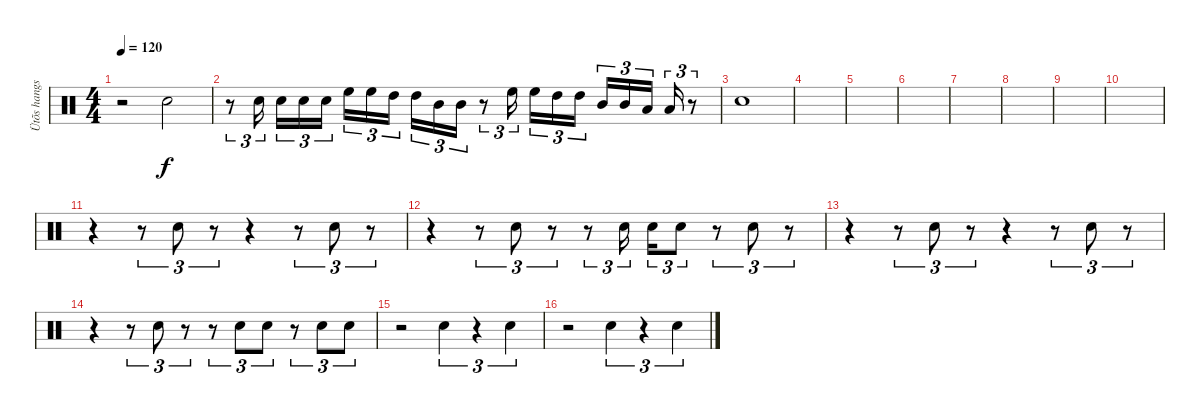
\track ("Ütõs hangszer" "Ütõs hangs") {instrument percussion}
\staff {score}
\articulation defaults
\ts (4 4)
\tempo 120
\clef neutral
\ks c
r.2{dy f} "Electric Snare (hit)".2 |
r.8{tu (3 2)} "Electric Snare (hit)".16{tu (3 2)} "Electric Snare (hit)".16{tu (3 2)} "Electric Snare (hit)".16{tu (3 2)} "Electric Snare (hit)".16{tu (3 2)} "High Floor Tom (hit)".16{tu (3 2)} "High Floor Tom (hit)".16{tu (3 2)} "High Tom (hit)".16{tu (3 2)} "High Tom (hit)".16{tu (3 2)} "Mid Tom (hit)".16{tu (3 2)} "Mid Tom (hit)".16{tu (3 2)} r.8{tu (3 2)} "High Floor Tom (hit)".16{tu (3 2)} "High Floor Tom (hit)".16{tu (3 2)} "High Tom (hit)".16{tu (3 2)} "High Tom (hit)".16{tu (3 2)} "Mid Tom (hit)".16{tu (3 2)} "Mid Tom (hit)".16{tu (3 2)} "Low Tom (hit)".16{tu (3 2)} "Low Tom (hit)".16{tu (3 2)} r.8{tu (3 2)} |
"Electric Snare (hit)".1 |
|
|
|
|
|
|
|
r.4 r.8{tu (3 2)} "Electric Snare (hit)".8{tu (3 2)} r.8{tu (3 2)} r.4 r.8{tu (3 2)} "Electric Snare (hit)".8{tu (3 2)} r.8{tu (3 2)} |
r.4 r.8{tu (3 2)} "Electric Snare (hit)".8{tu (3 2)} r.8{tu (3 2)} r.8{tu (3 2)} "Electric Snare (hit)".16{tu (3 2)} "Electric Snare (hit)".16{tu (3 2)} "Electric Snare (hit)".8{tu (3 2)} r.8{tu (3 2)} "Electric Snare (hit)".8{tu (3 2)} r.8{tu (3 2)} |
r.4 r.8{tu (3 2)} "Electric Snare (hit)".8{tu (3 2)} r.8{tu (3 2)} r.4 r.8{tu (3 2)} "Electric Snare (hit)".8{tu (3 2)} r.8{tu (3 2)} |
r.4 r.8{tu (3 2)} "Electric Snare (hit)".8{tu (3 2)} r.8{tu (3 2)} r.8{tu (3 2)} "Electric Snare (hit)".8{tu (3 2)} "Electric Snare (hit)".8{tu (3 2)} r.8{tu (3 2)} "Electric Snare (hit)".8{tu (3 2)} "Electric Snare (hit)".8{tu (3 2)} |
r.2 "Electric Snare (hit)".4{tu (3 2)} r.4{tu (3 2)} "Electric Snare (hit)".4{tu (3 2)} |
r.2 "Electric Snare (hit)".4{tu (3 2)} r.4{tu (3 2)} "Electric Snare (hit)".4{tu (3 2)}
